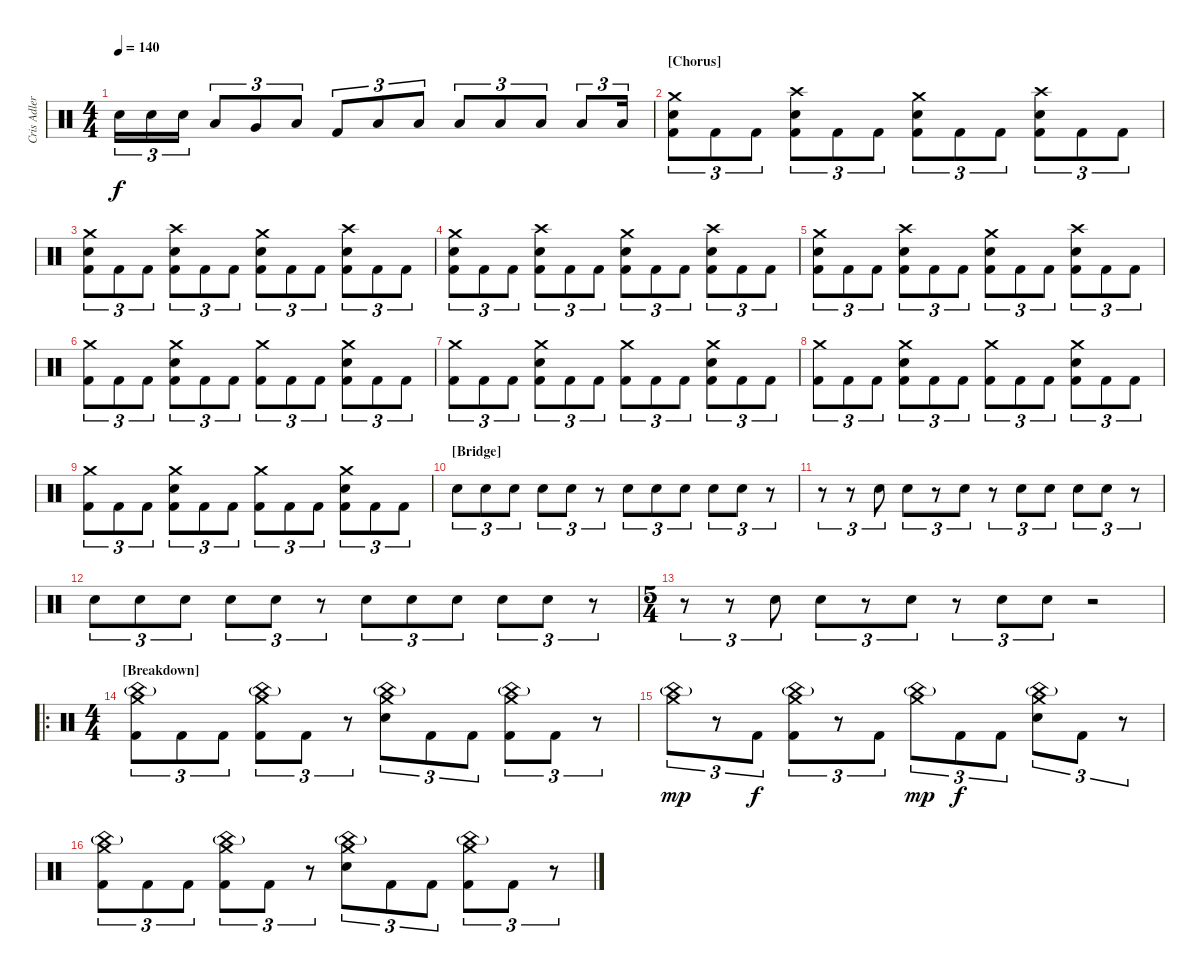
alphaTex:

\track ("Cris Adler" "Cris Adler") {instrument percussion}
\staff {score}
\articulation defaults
\ts (4 4)
\tempo 140
\clef neutral
\ks c "Electric Snare (hit)".16{tu (3 2) dy f} "Electric Snare (hit)".16{tu (3 2)} "Electric Snare (hit)".16{tu (3 2)} "Low Tom (hit)".8{tu (3 2)} "Very Low Tom (hit)".8{tu (3 2)} "Low Floor Tom (hit)".8{tu (3 2)} "Kick (hit) 2".8{tu (3 2)} "Low Floor Tom (hit)".8{tu (3 2)} "Low Floor Tom (hit)".8{tu (3 2)} "Low Floor Tom (hit)".8{tu (3 2)} "Low Floor Tom (hit)".8{tu (3 2)} "Low Floor Tom (hit)".8{tu (3 2)} "Low Floor Tom (hit)".8{tu (3 2)} "Low Floor Tom (hit)".16{tu (3 2)}
|
\section ("" "[Chorus]")
("Crash medium (hit)" "Electric Snare (hit)" "Kick (hit) 2").8{tu (3 2)} "Kick (hit) 2".8{tu (3 2)} "Kick (hit) 2".8{tu (3 2)} ("Crash high (hit)" "Electric Snare (hit)" "Kick (hit) 2").8{tu (3 2)} "Kick (hit) 2".8{tu (3 2)} "Kick (hit) 2".8{tu (3 2)} ("Crash medium (hit)" "Electric Snare (hit)" "Kick (hit) 2").8{tu (3 2)} "Kick (hit) 2".8{tu (3 2)} "Kick (hit) 2".8{tu (3 2)} ("Crash high (hit)" "Electric Snare (hit)" "Kick (hit) 2").8{tu (3 2)} "Kick (hit) 2".8{tu (3 2)} "Kick (hit) 2".8{tu (3 2)} |
("Crash medium (hit)" "Electric Snare (hit)" "Kick (hit) 2").8{tu (3 2)} "Kick (hit) 2".8{tu (3 2)} "Kick (hit) 2".8{tu (3 2)} ("Crash high (hit)" "Electric Snare (hit)" "Kick (hit) 2").8{tu (3 2)} "Kick (hit) 2".8{tu (3 2)} "Kick (hit) 2".8{tu (3 2)} ("Crash medium (hit)" "Electric Snare (hit)" "Kick (hit) 2").8{tu (3 2)} "Kick (hit) 2".8{tu (3 2)} "Kick (hit) 2".8{tu (3 2)} ("Crash high (hit)" "Electric Snare (hit)" "Kick (hit) 2").8{tu (3 2)} "Kick (hit) 2".8{tu (3 2)} "Kick (hit) 2".8{tu (3 2)} |
("Crash medium (hit)" "Electric Snare (hit)" "Kick (hit) 2").8{tu (3 2)} "Kick (hit) 2".8{tu (3 2)} "Kick (hit) 2".8{tu (3 2)} ("Crash high (hit)" "Electric Snare (hit)" "Kick (hit) 2").8{tu (3 2)} "Kick (hit) 2".8{tu (3 2)} "Kick (hit) 2".8{tu (3 2)} ("Crash medium (hit)" "Electric Snare (hit)" "Kick (hit) 2").8{tu (3 2)} "Kick (hit) 2".8{tu (3 2)} "Kick (hit) 2".8{tu (3 2)} ("Crash high (hit)" "Electric Snare (hit)" "Kick (hit) 2").8{tu (3 2)} "Kick (hit) 2".8{tu (3 2)} "Kick (hit) 2".8{tu (3 2)} |
("Crash medium (hit)" "Electric Snare (hit)" "Kick (hit) 2").8{tu (3 2)} "Kick (hit) 2".8{tu (3 2)} "Kick (hit) 2".8{tu (3 2)} ("Crash high (hit)" "Electric Snare (hit)" "Kick (hit) 2").8{tu (3 2)} "Kick (hit) 2".8{tu (3 2)} "Kick (hit) 2".8{tu (3 2)} ("Crash medium (hit)" "Electric Snare (hit)" "Kick (hit) 2").8{tu (3 2)} "Kick (hit) 2".8{tu (3 2)} "Kick (hit) 2".8{tu (3 2)} ("Crash high (hit)" "Electric Snare (hit)" "Kick (hit) 2").8{tu (3 2)} "Kick (hit) 2".8{tu (3 2)} "Kick (hit) 2".8{tu (3 2)} |
("Crash medium (hit)" "Kick (hit) 2").8{tu (3 2)} "Kick (hit) 2".8{tu (3 2)} "Kick (hit) 2".8{tu (3 2)} ("Crash medium (hit)" "Electric Snare (hit)" "Kick (hit) 2").8{tu (3 2)} "Kick (hit) 2".8{tu (3 2)} "Kick (hit) 2".8{tu (3 2)} ("Crash medium (hit)" "Kick (hit) 2").8{tu (3 2)} "Kick (hit) 2".8{tu (3 2)} "Kick (hit) 2".8{tu (3 2)} ("Crash medium (hit)" "Electric Snare (hit)" "Kick (hit) 2").8{tu (3 2)} "Kick (hit) 2".8{tu (3 2)} "Kick (hit) 2".8{tu (3 2)} |
("Crash medium (hit)" "Kick (hit) 2").8{tu (3 2)} "Kick (hit) 2".8{tu (3 2)} "Kick (hit) 2".8{tu (3 2)} ("Crash medium (hit)" "Electric Snare (hit)" "Kick (hit) 2").8{tu (3 2)} "Kick (hit) 2".8{tu (3 2)} "Kick (hit) 2".8{tu (3 2)} ("Crash medium (hit)" "Kick (hit) 2").8{tu (3 2)} "Kick (hit) 2".8{tu (3 2)} "Kick (hit) 2".8{tu (3 2)} ("Crash medium (hit)" "Electric Snare (hit)" "Kick (hit) 2").8{tu (3 2)} "Kick (hit) 2".8{tu (3 2)} "Kick (hit) 2".8{tu (3 2)} |
("Crash medium (hit)" "Kick (hit) 2").8{tu (3 2)} "Kick (hit) 2".8{tu (3 2)} "Kick (hit) 2".8{tu (3 2)} ("Crash medium (hit)" "Electric Snare (hit)" "Kick (hit) 2").8{tu (3 2)} "Kick (hit) 2".8{tu (3 2)} "Kick (hit) 2".8{tu (3 2)} ("Crash medium (hit)" "Kick (hit) 2").8{tu (3 2)} "Kick (hit) 2".8{tu (3 2)} "Kick (hit) 2".8{tu (3 2)} ("Crash medium (hit)" "Electric Snare (hit)" "Kick (hit) 2").8{tu (3 2)} "Kick (hit) 2".8{tu (3 2)} "Kick (hit) 2".8{tu (3 2)} |
("Crash medium (hit)" "Kick (hit) 2").8{tu (3 2)} "Kick (hit) 2".8{tu (3 2)} "Kick (hit) 2".8{tu (3 2)} ("Crash medium (hit)" "Electric Snare (hit)" "Kick (hit) 2").8{tu (3 2)} "Kick (hit) 2".8{tu (3 2)} "Kick (hit) 2".8{tu (3 2)} ("Crash medium (hit)" "Kick (hit) 2").8{tu (3 2)} "Kick (hit) 2".8{tu (3 2)} "Kick (hit) 2".8{tu (3 2)} ("Crash medium (hit)" "Electric Snare (hit)" "Kick (hit) 2").8{tu (3 2)} "Kick (hit) 2".8{tu (3 2)} "Kick (hit) 2".8{tu (3 2)} |
\section ("" "[Bridge]")
"Electric Snare (hit)".8{tu (3 2)} "Electric Snare (hit)".8{tu (3 2)} "Electric Snare (hit)".8{tu (3 2)} "Electric Snare (hit)".8{tu (3 2)} "Electric Snare (hit)".8{tu (3 2)} r.8{tu (3 2)} "Electric Snare (hit)".8{tu (3 2)} "Electric Snare (hit)".8{tu (3 2)} "Electric Snare (hit)".8{tu (3 2)} "Electric Snare (hit)".8{tu (3 2)} "Electric Snare (hit)".8{tu (3 2)} r.8{tu (3 2)} |
r.8{tu (3 2)} r.8{tu (3 2)} "Electric Snare (hit)".8{tu (3 2)} "Electric Snare (hit)".8{tu (3 2)} r.8{tu (3 2)} "Electric Snare (hit)".8{tu (3 2)} r.8{tu (3 2)} "Electric Snare (hit)".8{tu (3 2)} "Electric Snare (hit)".8{tu (3 2)} "Electric Snare (hit)".8{tu (3 2)} "Electric Snare (hit)".8{tu (3 2)} r.8{tu (3 2)} |
"Electric Snare (hit)".8{tu (3 2)} "Electric Snare (hit)".8{tu (3 2)} "Electric Snare (hit)".8{tu (3 2)} "Electric Snare (hit)".8{tu (3 2)} "Electric Snare (hit)".8{tu (3 2)} r.8{tu (3 2)} "Electric Snare (hit)".8{tu (3 2)} "Electric Snare (hit)".8{tu (3 2)} "Electric Snare (hit)".8{tu (3 2)} "Electric Snare (hit)".8{tu (3 2)} "Electric Snare (hit)".8{tu (3 2)} r.8{tu (3 2)} |
\ts (5 4)
r.8{tu (3 2)} r.8{tu (3 2)} "Electric Snare (hit)".8{tu (3 2)} "Electric Snare (hit)".8{tu (3 2)} r.8{tu (3 2)} "Electric Snare (hit)".8{tu (3 2)} r.8{tu (3 2)} "Electric Snare (hit)".8{tu (3 2)} "Electric Snare (hit)".8{tu (3 2)} r.2 |
\ro
\ts (4 4)
\section ("" "[Breakdown]")
("China (hit)"{g} "Crash medium (hit)" "Kick (hit) 2").8{tu (3 2)} "Kick (hit) 2".8{tu (3 2)} "Kick (hit) 2".8{tu (3 2)} ("China (hit)"{g} "Crash medium (hit)" "Kick (hit) 2").8{tu (3 2)} "Kick (hit) 2".8{tu (3 2)} r.8{tu (3 2)} ("China (hit)"{g} "Crash medium (hit)" "Electric Snare (hit)").8{tu (3 2)} "Kick (hit) 2".8{tu (3 2)} "Kick (hit) 2".8{tu (3 2)} ("China (hit)"{g} "Crash medium (hit)" "Kick (hit) 2").8{tu (3 2)} "Kick (hit) 2".8{tu (3 2)} r.8{tu (3 2)} |
("Crash medium (hit)" "China (hit)"{g}).8{tu (3 2) dy mp} r.8{tu (3 2)} "Kick (hit) 2".8{tu (3 2) dy f} ("Crash medium (hit)" "China (hit)"{g} "Kick (hit) 2").8{tu (3 2)} r.8{tu (3 2)} "Kick (hit) 2".8{tu (3 2)} ("Crash medium (hit)" "China (hit)"{g}).8{tu (3 2) dy mp} "Kick (hit) 2".8{tu (3 2) dy f} "Kick (hit) 2".8{tu (3 2)} ("Crash medium (hit)" "China (hit)"{g} "Electric Snare (hit)").8{tu (3 2)} "Kick (hit) 2".8{tu (3 2)} r.8{tu (3 2)} |
("China (hit)"{g} "Crash medium (hit)" "Kick (hit) 2").8{tu (3 2)} "Kick (hit) 2".8{tu (3 2)} "Kick (hit) 2".8{tu (3 2)} ("China (hit)"{g} "Crash medium (hit)" "Kick (hit) 2").8{tu (3 2)} "Kick (hit) 2".8{tu (3 2)} r.8{tu (3 2)} ("China (hit)"{g} "Crash medium (hit)" "Electric Snare (hit)").8{tu (3 2)} "Kick (hit) 2".8{tu (3 2)} "Kick (hit) 2".8{tu (3 2)} ("China (hit)"{g} "Crash medium (hit)" "Kick (hit) 2").8{tu (3 2)} "Kick (hit) 2".8{tu (3 2)} r.8{tu (3 2)}
